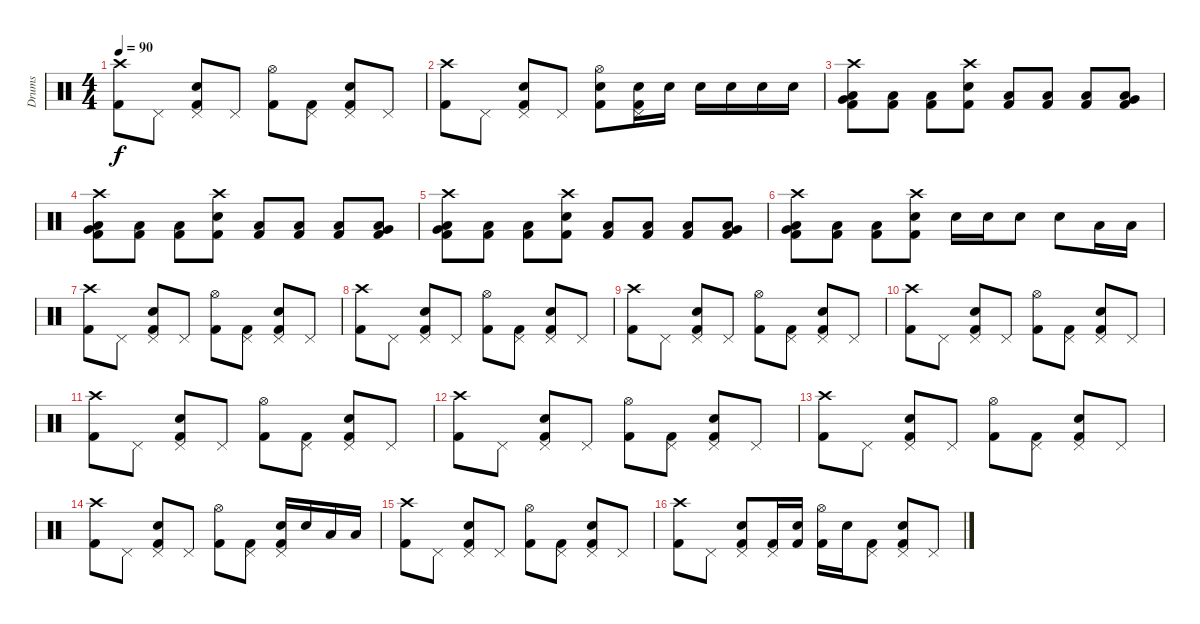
\track ("Drums" "Drums") {instrument percussion}
\staff {score}
\articulation defaults
\ts (4 4)
\tempo 90
\clef neutral
\ks c
("Crash high (hit)" "Kick (hit) 2").8{dy f} "Pedal Hi-Hat (hit)".8 ("Pedal Hi-Hat (hit)" "Electric Snare (hit)" "Kick (hit) 2").8 "Pedal Hi-Hat (hit)".8 ("Hi-Hat (open)" "Kick (hit) 2").8 ("Pedal Hi-Hat (hit)" "Kick (hit) 2").8 ("Pedal Hi-Hat (hit)" "Electric Snare (hit)" "Kick (hit) 2").8 "Pedal Hi-Hat (hit)".8 |
("Crash high (hit)" "Kick (hit) 2").8 "Pedal Hi-Hat (hit)".8 ("Pedal Hi-Hat (hit)" "Electric Snare (hit)" "Kick (hit) 2").8 "Pedal Hi-Hat (hit)".8 ("Hi-Hat (open)" "Electric Snare (hit)" "Kick (hit) 2").8 ("Pedal Hi-Hat (hit)" "Electric Snare (hit)" "Kick (hit) 2").16 "Electric Snare (hit)".16 "Electric Snare (hit)".16 "Electric Snare (hit)".16 "Snare (hit) 2".16 "Snare (hit) 2".16 |
("Crash high (hit)" "Very Low Tom (hit)" "Low Tom (hit)" "Kick (hit) 2").8 ("Low Tom (hit)" "Kick (hit) 2").8 ("Low Tom (hit)" "Kick (hit) 2").8 ("Crash high (hit)" "Electric Snare (hit)" "Kick (hit) 2").8 ("Low Tom (hit)" "Kick (hit) 2").8 ("Low Tom (hit)" "Kick (hit) 2").8 ("Low Tom (hit)" "Kick (hit) 2").8 ("Very Low Tom (hit)" "Low Tom (hit)" "Kick (hit) 2").8 |
("Crash high (hit)" "Very Low Tom (hit)" "Low Tom (hit)" "Kick (hit) 2").8 ("Low Tom (hit)" "Kick (hit) 2").8 ("Low Tom (hit)" "Kick (hit) 2").8 ("Crash high (hit)" "Electric Snare (hit)" "Kick (hit) 2").8 ("Low Tom (hit)" "Kick (hit) 2").8 ("Low Tom (hit)" "Kick (hit) 2").8 ("Low Tom (hit)" "Kick (hit) 2").8 ("Very Low Tom (hit)" "Low Tom (hit)" "Kick (hit) 2").8 |
("Crash high (hit)" "Very Low Tom (hit)" "Low Tom (hit)" "Kick (hit) 2").8 ("Low Tom (hit)" "Kick (hit) 2").8 ("Low Tom (hit)" "Kick (hit) 2").8 ("Crash high (hit)" "Electric Snare (hit)" "Kick (hit) 2").8 ("Low Tom (hit)" "Kick (hit) 2").8 ("Low Tom (hit)" "Kick (hit) 2").8 ("Low Tom (hit)" "Kick (hit) 2").8 ("Very Low Tom (hit)" "Low Tom (hit)" "Kick (hit) 2").8 |
("Crash high (hit)" "Very Low Tom (hit)" "Low Tom (hit)" "Kick (hit) 2").8 ("Low Tom (hit)" "Kick (hit) 2").8 ("Low Tom (hit)" "Kick (hit) 2").8 ("Crash high (hit)" "Electric Snare (hit)" "Kick (hit) 2").8 "Electric Snare (hit)".16 "Electric Snare (hit)".16 "Electric Snare (hit)".8 "Snare (hit) 2".8 "Low Tom (hit)".16 "Low Tom (hit)".16 |
("Crash high (hit)" "Kick (hit) 2").8 "Pedal Hi-Hat (hit)".8 ("Pedal Hi-Hat (hit)" "Electric Snare (hit)" "Kick (hit) 2").8 "Pedal Hi-Hat (hit)".8 ("Hi-Hat (open)" "Kick (hit) 2").8 ("Pedal Hi-Hat (hit)" "Kick (hit) 2").8 ("Pedal Hi-Hat (hit)" "Electric Snare (hit)" "Kick (hit) 2").8 "Pedal Hi-Hat (hit)".8 |
("Crash high (hit)" "Kick (hit) 2").8 "Pedal Hi-Hat (hit)".8 ("Pedal Hi-Hat (hit)" "Electric Snare (hit)" "Kick (hit) 2").8 "Pedal Hi-Hat (hit)".8 ("Hi-Hat (open)" "Kick (hit) 2").8 ("Pedal Hi-Hat (hit)" "Kick (hit) 2").8 ("Pedal Hi-Hat (hit)" "Electric Snare (hit)" "Kick (hit) 2").8 "Pedal Hi-Hat (hit)".8 |
("Crash high (hit)" "Kick (hit) 2").8 "Pedal Hi-Hat (hit)".8 ("Pedal Hi-Hat (hit)" "Electric Snare (hit)" "Kick (hit) 2").8 "Pedal Hi-Hat (hit)".8 ("Hi-Hat (open)" "Kick (hit) 2").8 ("Pedal Hi-Hat (hit)" "Kick (hit) 2").8 ("Pedal Hi-Hat (hit)" "Electric Snare (hit)" "Kick (hit) 2").8 "Pedal Hi-Hat (hit)".8 |
("Crash high (hit)" "Kick (hit) 2").8 "Pedal Hi-Hat (hit)".8 ("Pedal Hi-Hat (hit)" "Electric Snare (hit)" "Kick (hit) 2").8 "Pedal Hi-Hat (hit)".8 ("Hi-Hat (open)" "Kick (hit) 2").8 ("Pedal Hi-Hat (hit)" "Kick (hit) 2").8 ("Pedal Hi-Hat (hit)" "Electric Snare (hit)" "Kick (hit) 2").8 "Pedal Hi-Hat (hit)".8 |
("Crash high (hit)" "Kick (hit) 2").8 "Pedal Hi-Hat (hit)".8 ("Pedal Hi-Hat (hit)" "Electric Snare (hit)" "Kick (hit) 2").8 "Pedal Hi-Hat (hit)".8 ("Hi-Hat (open)" "Kick (hit) 2").8 ("Pedal Hi-Hat (hit)" "Kick (hit) 2").8 ("Pedal Hi-Hat (hit)" "Electric Snare (hit)" "Kick (hit) 2").8 "Pedal Hi-Hat (hit)".8 |
("Crash high (hit)" "Kick (hit) 2").8 "Pedal Hi-Hat (hit)".8 ("Pedal Hi-Hat (hit)" "Electric Snare (hit)" "Kick (hit) 2").8 "Pedal Hi-Hat (hit)".8 ("Hi-Hat (open)" "Kick (hit) 2").8 ("Pedal Hi-Hat (hit)" "Kick (hit) 2").8 ("Pedal Hi-Hat (hit)" "Electric Snare (hit)" "Kick (hit) 2").8 "Pedal Hi-Hat (hit)".8 |
("Crash high (hit)" "Kick (hit) 2").8 "Pedal Hi-Hat (hit)".8 ("Pedal Hi-Hat (hit)" "Electric Snare (hit)" "Kick (hit) 2").8 "Pedal Hi-Hat (hit)".8 ("Hi-Hat (open)" "Kick (hit) 2").8 ("Pedal Hi-Hat (hit)" "Kick (hit) 2").8 ("Pedal Hi-Hat (hit)" "Electric Snare (hit)" "Kick (hit) 2").8 "Pedal Hi-Hat (hit)".8 |
("Crash high (hit)" "Kick (hit) 2").8 "Pedal Hi-Hat (hit)".8 ("Pedal Hi-Hat (hit)" "Electric Snare (hit)" "Kick (hit) 2").8 "Pedal Hi-Hat (hit)".8 ("Hi-Hat (open)" "Kick (hit) 2").8 ("Pedal Hi-Hat (hit)" "Kick (hit) 2").8 ("Pedal Hi-Hat (hit)" "Snare (hit) 2" "Kick (hit) 2").16 "Snare (hit) 2".16 "Low Tom (hit)".16 "Low Tom (hit)".16 |
("Crash high (hit)" "Kick (hit) 2").8 "Pedal Hi-Hat (hit)".8 ("Pedal Hi-Hat (hit)" "Electric Snare (hit)" "Kick (hit) 2").8 "Pedal Hi-Hat (hit)".8 ("Hi-Hat (open)" "Kick (hit) 2").8 ("Pedal Hi-Hat (hit)" "Kick (hit) 2").8 ("Pedal Hi-Hat (hit)" "Electric Snare (hit)" "Kick (hit) 2").8 "Pedal Hi-Hat (hit)".8 |
("Crash high (hit)" "Kick (hit) 2").8 "Pedal Hi-Hat (hit)".8 ("Pedal Hi-Hat (hit)" "Electric Snare (hit)" "Kick (hit) 2").8 ("Pedal Hi-Hat (hit)" "Kick (hit) 2").16 ("Electric Snare (hit)" "Kick (hit) 2").16 ("Hi-Hat (open)" "Kick (hit) 2").16 "Electric Snare (hit)".16 ("Pedal Hi-Hat (hit)" "Kick (hit) 2").8 ("Pedal Hi-Hat (hit)" "Electric Snare (hit)" "Kick (hit) 2").8 "Pedal Hi-Hat (hit)".8
